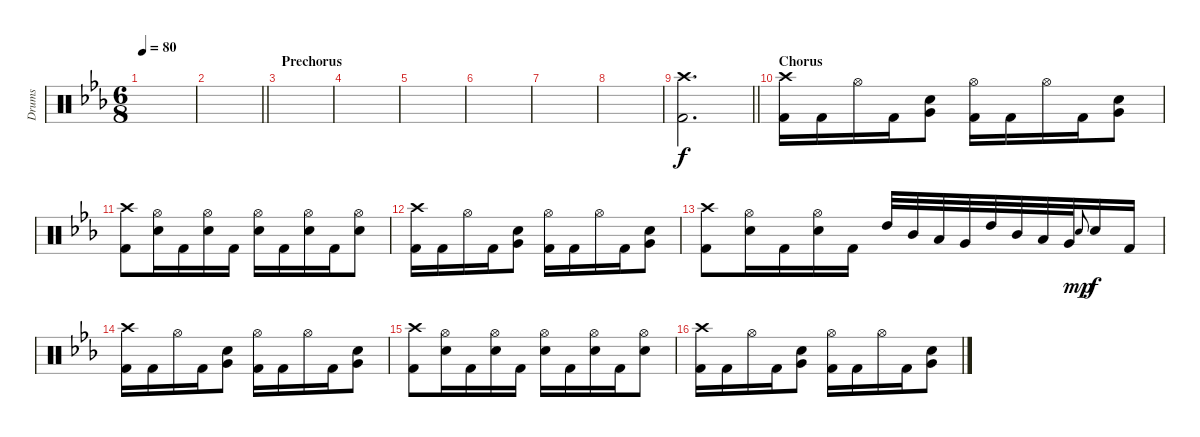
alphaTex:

\track ("Drums" "Drums") {instrument percussion}
\staff {score}
\articulation defaults
\ts (6 8)
\tempo 80
\clef neutral
\ks cminor
|
\barLineRight lightlight
|
\section ("" "Prechorus")
|
|
|
|
|
|
\barLineRight lightlight
("Crash high (hit)" "Kick (hit) 2").2{d} |
\section ("" "Chorus")
("Crash high (hit)" "Kick (hit) 2").16 "Kick (hit) 2".16 "Hi-Hat (open)".16 "Kick (hit) 2".16 ("Very Low Tom (hit)" "Snare (hit) 2").8 ("Hi-Hat (open)" "Kick (hit) 2").16 "Kick (hit) 2".16 "Hi-Hat (open)".16 "Kick (hit) 2".16 ("Very Low Tom (hit)" "Snare (hit) 2").8 |
("Crash high (hit)" "Kick (hit) 2").8 ("Hi-Hat (open)" "Snare (hit) 2").16 "Kick (hit) 2".16 ("Hi-Hat (open)" "Snare (hit) 2").16 "Kick (hit) 2".16 ("Hi-Hat (open)" "Snare (hit) 2").16 "Kick (hit) 2".16 ("Hi-Hat (open)" "Snare (hit) 2").16 "Kick (hit) 2".16 ("Hi-Hat (open)" "Snare (hit) 2").8 |
("Crash high (hit)" "Kick (hit) 2").16 "Kick (hit) 2".16 "Hi-Hat (open)".16 "Kick (hit) 2".16 ("Very Low Tom (hit)" "Snare (hit) 2").8 ("Hi-Hat (open)" "Kick (hit) 2").16 "Kick (hit) 2".16 "Hi-Hat (open)".16 "Kick (hit) 2".16 ("Very Low Tom (hit)" "Snare (hit) 2").8 |
("Crash high (hit)" "Kick (hit) 2").8 ("Hi-Hat (open)" "Snare (hit) 2").16 "Kick (hit) 2".16 ("Hi-Hat (open)" "Snare (hit) 2").16 "Kick (hit) 2".16 "High Tom (hit)".32 "Mid Tom (hit)".32 "Low Tom (hit)".32 "Very Low Tom (hit)".32 "High Tom (hit)".32 "Mid Tom (hit)".32 "Low Tom (hit)".32 "Very Low Tom (hit)".32 "Snare (hit) 2".8{gr onbeat dy mp} "Snare (hit) 2".16{dy f} "Kick (hit) 2".16 |
("Crash high (hit)" "Kick (hit) 2").16 "Kick (hit) 2".16 "Hi-Hat (open)".16 "Kick (hit) 2".16 ("Very Low Tom (hit)" "Snare (hit) 2").8 ("Hi-Hat (open)" "Kick (hit) 2").16 "Kick (hit) 2".16 "Hi-Hat (open)".16 "Kick (hit) 2".16 ("Very Low Tom (hit)" "Snare (hit) 2").8 |
("Crash high (hit)" "Kick (hit) 2").8 ("Hi-Hat (open)" "Snare (hit) 2").16 "Kick (hit) 2".16 ("Hi-Hat (open)" "Snare (hit) 2").16 "Kick (hit) 2".16 ("Hi-Hat (open)" "Snare (hit) 2").16 "Kick (hit) 2".16 ("Hi-Hat (open)" "Snare (hit) 2").16 "Kick (hit) 2".16 ("Hi-Hat (open)" "Snare (hit) 2").8 |
("Crash high (hit)" "Kick (hit) 2").16 "Kick (hit) 2".16 "Hi-Hat (open)".16 "Kick (hit) 2".16 ("Very Low Tom (hit)" "Snare (hit) 2").8 ("Hi-Hat (open)" "Kick (hit) 2").16 "Kick (hit) 2".16 "Hi-Hat (open)".16 "Kick (hit) 2".16 ("Very Low Tom (hit)" "Snare (hit) 2").8
